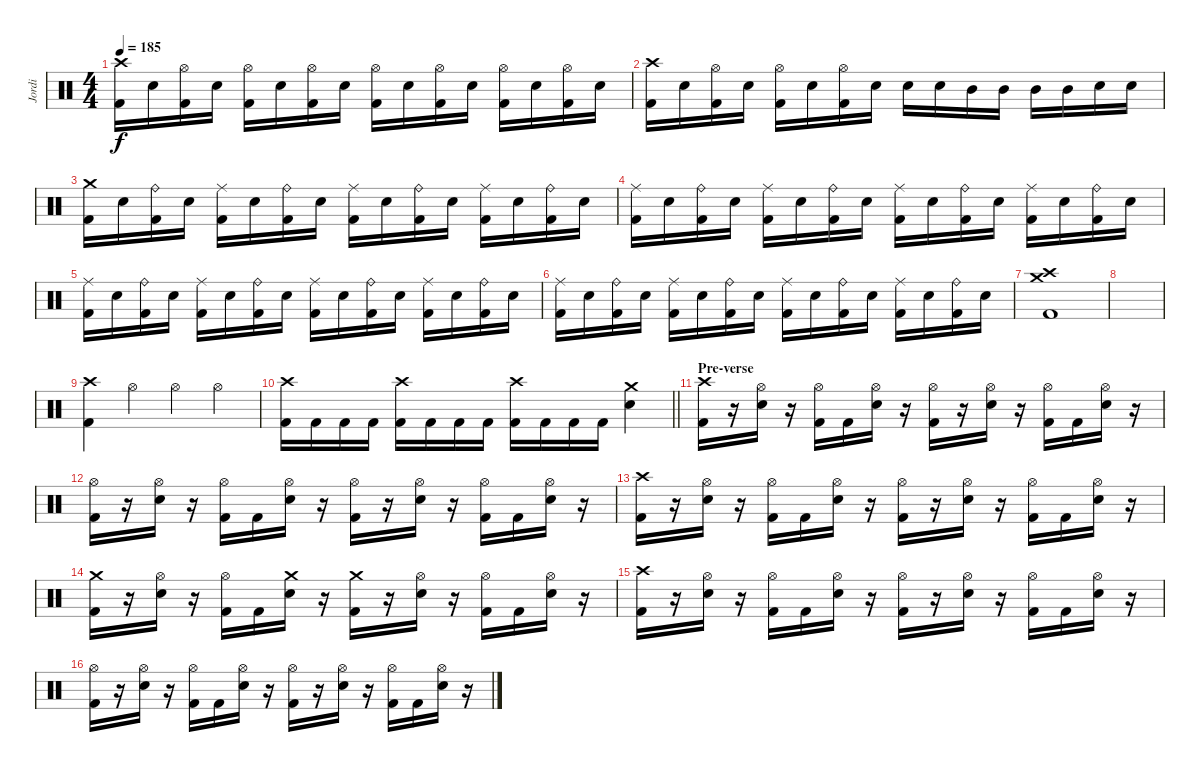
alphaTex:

\track ("Jordi" "Jordi") {instrument percussion}
\staff {score}
\articulation defaults
\ts (4 4)
\tempo 185
\clef neutral
\ks c
("Crash high (hit)" "Kick (hit) 2").16{dy f} "Snare (hit) 2".16 ("Hi-Hat (open)" "Kick (hit) 2").16 "Snare (hit) 2".16 ("Hi-Hat (open)" "Kick (hit) 2").16 "Snare (hit) 2".16 ("Hi-Hat (open)" "Kick (hit) 2").16 "Snare (hit) 2".16 ("Hi-Hat (open)" "Kick (hit) 2").16 "Snare (hit) 2".16 ("Hi-Hat (open)" "Kick (hit) 2").16 "Snare (hit) 2".16 ("Hi-Hat (open)" "Kick (hit) 2").16 "Snare (hit) 2".16 ("Hi-Hat (open)" "Kick (hit) 2").16 "Snare (hit) 2".16 |
("Crash high (hit)" "Kick (hit) 2").16 "Snare (hit) 2".16 ("Hi-Hat (open)" "Kick (hit) 2").16 "Snare (hit) 2".16 ("Hi-Hat (open)" "Kick (hit) 2").16 "Snare (hit) 2".16 ("Hi-Hat (open)" "Kick (hit) 2").16 "Snare (hit) 2".16 "Snare (hit) 2".16 "Snare (hit) 2".16 "Mid Tom (hit)".16 "Mid Tom (hit)".16 "Mid Tom (hit)".16 "Mid Tom (hit)".16 "Snare (hit) 2".16 "Snare (hit) 2".16 |
("Crash medium (hit)" "Kick (hit) 2").16 "Snare (hit) 2".16 ("Ride (bell)" "Kick (hit) 2").16 "Snare (hit) 2".16 ("Ride (middle)" "Kick (hit) 2").16 "Snare (hit) 2".16 ("Ride (bell)" "Kick (hit) 2").16 "Snare (hit) 2".16 ("Ride (middle)" "Kick (hit) 2").16 "Snare (hit) 2".16 ("Ride (bell)" "Kick (hit) 2").16 "Snare (hit) 2".16 ("Ride (middle)" "Kick (hit) 2").16 "Snare (hit) 2".16 ("Ride (bell)" "Kick (hit) 2").16 "Snare (hit) 2".16 |
("Ride (middle)" "Kick (hit) 2").16 "Snare (hit) 2".16 ("Ride (bell)" "Kick (hit) 2").16 "Snare (hit) 2".16 ("Ride (middle)" "Kick (hit) 2").16 "Snare (hit) 2".16 ("Ride (bell)" "Kick (hit) 2").16 "Snare (hit) 2".16 ("Ride (middle)" "Kick (hit) 2").16 "Snare (hit) 2".16 ("Ride (bell)" "Kick (hit) 2").16 "Snare (hit) 2".16 ("Ride (middle)" "Kick (hit) 2").16 "Snare (hit) 2".16 ("Ride (bell)" "Kick (hit) 2").16 "Snare (hit) 2".16 |
("Ride (middle)" "Kick (hit) 2").16 "Snare (hit) 2".16 ("Ride (bell)" "Kick (hit) 2").16 "Snare (hit) 2".16 ("Ride (middle)" "Kick (hit) 2").16 "Snare (hit) 2".16 ("Ride (bell)" "Kick (hit) 2").16 "Snare (hit) 2".16 ("Ride (middle)" "Kick (hit) 2").16 "Snare (hit) 2".16 ("Ride (bell)" "Kick (hit) 2").16 "Snare (hit) 2".16 ("Ride (middle)" "Kick (hit) 2").16 "Snare (hit) 2".16 ("Ride (bell)" "Kick (hit) 2").16 "Snare (hit) 2".16 |
("Ride (middle)" "Kick (hit) 2").16 "Snare (hit) 2".16 ("Ride (bell)" "Kick (hit) 2").16 "Snare (hit) 2".16 ("Ride (middle)" "Kick (hit) 2").16 "Snare (hit) 2".16 ("Ride (bell)" "Kick (hit) 2").16 "Snare (hit) 2".16 ("Ride (middle)" "Kick (hit) 2").16 "Snare (hit) 2".16 ("Ride (bell)" "Kick (hit) 2").16 "Snare (hit) 2".16 ("Ride (middle)" "Kick (hit) 2").16 "Snare (hit) 2".16 ("Ride (bell)" "Kick (hit) 2").16 "Snare (hit) 2".16 |
("Crash high (hit)" "Crash medium (hit)" "Kick (hit) 2").1 |
|
("Crash high (hit)" "Kick (hit) 2").4 "Hi-Hat (open)".4 "Hi-Hat (open)".4 "Hi-Hat (open)".4 |
\barLineRight lightlight
("Crash high (hit)" "Kick (hit) 2").16 "Kick (hit) 2".16 "Kick (hit) 2".16 "Kick (hit) 2".16 ("Crash high (hit)" "Kick (hit) 2").16 "Kick (hit) 2".16 "Kick (hit) 2".16 "Kick (hit) 2".16 ("Crash high (hit)" "Kick (hit) 2").16 "Kick (hit) 2".16 "Kick (hit) 2".16 "Kick (hit) 2".16 ("Crash medium (hit)" "Snare (hit) 2").4 |
\section ("" "Pre-verse")
("Crash high (hit)" "Kick (hit) 2").16 r.16 ("Hi-Hat (open)" "Snare (hit) 2").16 r.16 ("Hi-Hat (open)" "Kick (hit) 2").16 "Kick (hit) 2".16 ("Hi-Hat (open)" "Snare (hit) 2").16 r.16 ("Hi-Hat (open)" "Kick (hit) 2").16 r.16 ("Hi-Hat (open)" "Snare (hit) 2").16 r.16 ("Hi-Hat (open)" "Kick (hit) 2").16 "Kick (hit) 2".16 ("Hi-Hat (open)" "Snare (hit) 2").16 r.16 |
("Hi-Hat (open)" "Kick (hit) 2").16 r.16 ("Hi-Hat (open)" "Snare (hit) 2").16 r.16 ("Hi-Hat (open)" "Kick (hit) 2").16 "Kick (hit) 2".16 ("Hi-Hat (open)" "Snare (hit) 2").16 r.16 ("Hi-Hat (open)" "Kick (hit) 2").16 r.16 ("Hi-Hat (open)" "Snare (hit) 2").16 r.16 ("Hi-Hat (open)" "Kick (hit) 2").16 "Kick (hit) 2".16 ("Hi-Hat (open)" "Snare (hit) 2").16 r.16 |
("Crash high (hit)" "Kick (hit) 2").16 r.16 ("Hi-Hat (open)" "Snare (hit) 2").16 r.16 ("Hi-Hat (open)" "Kick (hit) 2").16 "Kick (hit) 2".16 ("Hi-Hat (open)" "Snare (hit) 2").16 r.16 ("Hi-Hat (open)" "Kick (hit) 2").16 r.16 ("Hi-Hat (open)" "Snare (hit) 2").16 r.16 ("Hi-Hat (open)" "Kick (hit) 2").16 "Kick (hit) 2".16 ("Hi-Hat (open)" "Snare (hit) 2").16 r.16 |
("Crash medium (hit)" "Kick (hit) 2").16 r.16 ("Hi-Hat (open)" "Snare (hit) 2").16 r.16 ("Hi-Hat (open)" "Kick (hit) 2").16 "Kick (hit) 2".16 ("Crash medium (hit)" "Snare (hit) 2").16 r.16 ("Crash medium (hit)" "Kick (hit) 2").16 r.16 ("Hi-Hat (open)" "Snare (hit) 2").16 r.16 ("Hi-Hat (open)" "Kick (hit) 2").16 "Kick (hit) 2".16 ("Hi-Hat (open)" "Snare (hit) 2").16 r.16 |
("Crash high (hit)" "Kick (hit) 2").16 r.16 ("Hi-Hat (open)" "Snare (hit) 2").16 r.16 ("Hi-Hat (open)" "Kick (hit) 2").16 "Kick (hit) 2".16 ("Hi-Hat (open)" "Snare (hit) 2").16 r.16 ("Hi-Hat (open)" "Kick (hit) 2").16 r.16 ("Hi-Hat (open)" "Snare (hit) 2").16 r.16 ("Hi-Hat (open)" "Kick (hit) 2").16 "Kick (hit) 2".16 ("Hi-Hat (open)" "Snare (hit) 2").16 r.16 |
("Hi-Hat (open)" "Kick (hit) 2").16 r.16 ("Hi-Hat (open)" "Snare (hit) 2").16 r.16 ("Hi-Hat (open)" "Kick (hit) 2").16 "Kick (hit) 2".16 ("Hi-Hat (open)" "Snare (hit) 2").16 r.16 ("Hi-Hat (open)" "Kick (hit) 2").16 r.16 ("Hi-Hat (open)" "Snare (hit) 2").16 r.16 ("Hi-Hat (open)" "Kick (hit) 2").16 "Kick (hit) 2".16 ("Hi-Hat (open)" "Snare (hit) 2").16 r.16
